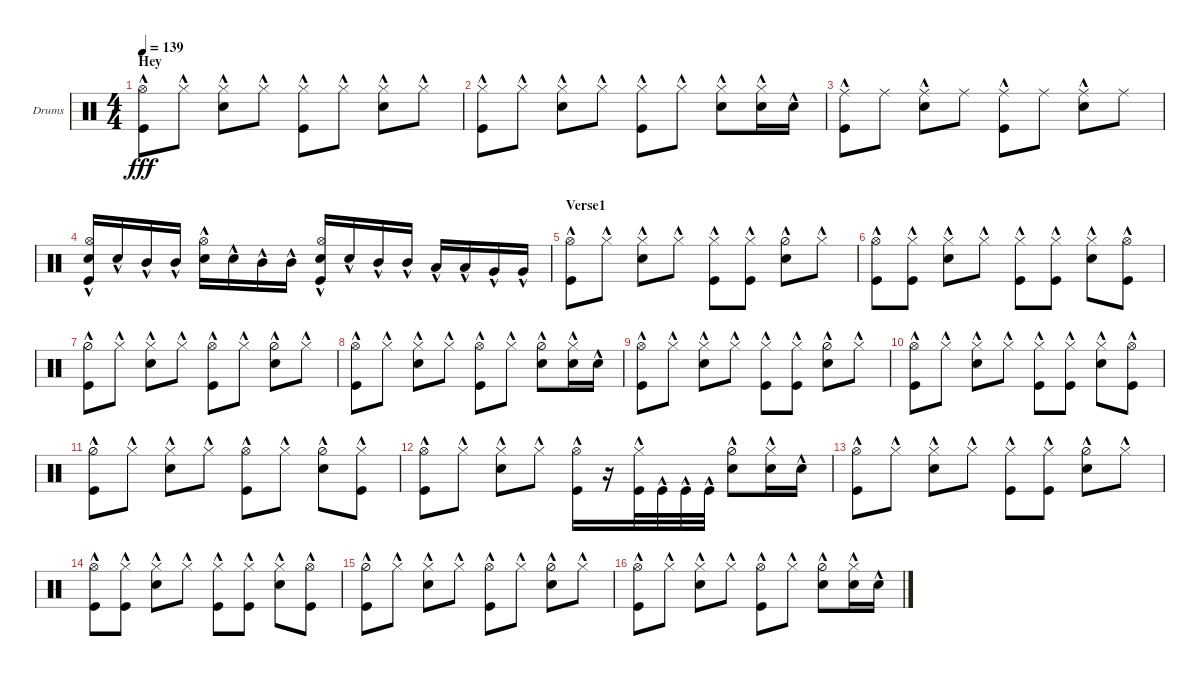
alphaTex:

\bracketExtendMode groupsimilarinstruments
\firstSystemTrackNameOrientation horizontal
\otherSystemsTrackNameOrientation horizontal
\track ("Drumkit" "Drums") {instrument percussion}
\staff {score}
\articulation defaults
\ts (4 4)
\section ("" "Hey")
\tempo 139
\clef neutral
\ks c
("Kick (hit)"{hac} "Hi-Hat (open)"{hac}).8{dy fff} "Hi-Hat (closed)"{hac}.8 ("Hi-Hat (closed)"{hac} "Snare (hit) 2"{hac}).8 "Hi-Hat (closed)"{hac}.8 ("Hi-Hat (closed)"{hac} "Kick (hit)"{hac}).8 "Hi-Hat (closed)"{hac}.8 ("Hi-Hat (closed)"{hac} "Snare (hit) 2"{hac}).8 "Hi-Hat (closed)"{hac}.8 |
("Hi-Hat (closed)"{hac} "Kick (hit)"{hac}).8 "Hi-Hat (closed)"{hac}.8 ("Hi-Hat (closed)"{hac} "Snare (hit) 2"{hac}).8 "Hi-Hat (closed)"{hac}.8 ("Hi-Hat (closed)"{hac} "Kick (hit)"{hac}).8 "Hi-Hat (closed)"{hac}.8 ("Hi-Hat (closed)"{hac} "Snare (hit) 2"{hac}).8 ("Hi-Hat (closed)"{hac} "Snare (hit) 2"{hac}).16 "Snare (hit) 2"{hac}.16 |
("Kick (hit)"{hac} "Ride (middle)"{hac}).8 "Ride (middle)".8 ("Ride (middle)"{hac} "Snare (hit) 2"{hac}).8 "Ride (middle)".8 ("Ride (middle)"{hac} "Kick (hit)"{hac}).8 "Ride (middle)".8 ("Ride (middle)"{hac} "Snare (hit) 2"{hac}).8 "Ride (middle)".8 |
("Snare (hit) 2"{hac} "Kick (hit)"{hac} "Hi-Hat (open)"{hac}).16 "Snare (hit) 2"{hac}.16 "Mid Tom (hit)"{hac}.16 "Mid Tom (hit)"{hac}.16 ("Snare (hit) 2"{hac} "Hi-Hat (open)"{hac}).16 "Snare (hit) 2"{hac}.16 "Mid Tom (hit)"{hac}.16 "Mid Tom (hit)"{hac}.16 ("Snare (hit) 2"{hac} "Kick (hit)"{hac} "Hi-Hat (open)"{hac}).16 "Snare (hit) 2"{hac}.16 "Mid Tom (hit)"{hac}.16 "Mid Tom (hit)"{hac}.16 "Low Tom (hit)"{hac}.16 "Low Tom (hit)"{hac}.16 "Very Low Tom (hit)"{hac}.16 "Very Low Tom (hit)"{hac}.16 |
\section ("" "Verse1")
("Kick (hit)"{hac} "Hi-Hat (open)"{hac}).8 "Hi-Hat (closed)"{hac}.8 ("Hi-Hat (closed)"{hac} "Snare (hit) 2"{hac}).8 "Hi-Hat (closed)"{hac}.8 ("Hi-Hat (closed)"{hac} "Kick (hit)"{hac}).8 ("Hi-Hat (closed)"{hac} "Kick (hit)"{hac}).8 ("Hi-Hat (half)"{hac} "Snare (hit) 2"{hac}).8 "Hi-Hat (closed)"{hac}.8 |
("Kick (hit)"{hac} "Hi-Hat (open)"{hac}).8 ("Hi-Hat (closed)"{hac} "Kick (hit)"{hac}).8 ("Hi-Hat (closed)"{hac} "Snare (hit) 2"{hac}).8 "Hi-Hat (closed)"{hac}.8 ("Hi-Hat (closed)"{hac} "Kick (hit)"{hac}).8 ("Hi-Hat (closed)"{hac} "Kick (hit)"{hac}).8 ("Hi-Hat (closed)"{hac} "Snare (hit) 2"{hac}).8 ("Hi-Hat (open)"{hac} "Kick (hit)"{hac}).8 |
("Kick (hit)"{hac} "Hi-Hat (half)"{hac}).8 "Hi-Hat (closed)"{hac}.8 ("Hi-Hat (closed)"{hac} "Snare (hit) 2"{hac}).8 "Hi-Hat (closed)"{hac}.8 ("Hi-Hat (open)"{hac} "Kick (hit)"{hac}).8 "Hi-Hat (closed)"{hac}.8 ("Hi-Hat (half)"{hac} "Snare (hit) 2"{hac}).8 "Hi-Hat (closed)"{hac}.8 |
("Kick (hit)"{hac} "Hi-Hat (open)"{hac}).8 "Hi-Hat (closed)"{hac}.8 ("Hi-Hat (closed)"{hac} "Snare (hit) 2"{hac}).8 "Hi-Hat (closed)"{hac}.8 ("Hi-Hat (open)"{hac} "Kick (hit)"{hac}).8 "Hi-Hat (closed)"{hac}.8 ("Hi-Hat (half)"{hac} "Snare (hit) 2"{hac}).8 ("Hi-Hat (closed)"{hac} "Snare (hit) 2"{hac}).16 "Snare (hit) 2"{hac}.16 |
("Kick (hit)"{hac} "Hi-Hat (open)"{hac}).8 "Hi-Hat (closed)"{hac}.8 ("Hi-Hat (closed)"{hac} "Snare (hit) 2"{hac}).8 "Hi-Hat (closed)"{hac}.8 ("Hi-Hat (closed)"{hac} "Kick (hit)"{hac}).8 ("Hi-Hat (closed)"{hac} "Kick (hit)"{hac}).8 ("Hi-Hat (half)"{hac} "Snare (hit) 2"{hac}).8 "Hi-Hat (closed)"{hac}.8 |
("Kick (hit)"{hac} "Hi-Hat (open)"{hac}).8 "Hi-Hat (closed)"{hac}.8 ("Hi-Hat (closed)"{hac} "Snare (hit) 2"{hac}).8 "Hi-Hat (closed)"{hac}.8 ("Hi-Hat (closed)"{hac} "Kick (hit)"{hac}).8 ("Hi-Hat (closed)"{hac} "Kick (hit)"{hac}).8 ("Hi-Hat (closed)"{hac} "Snare (hit) 2"{hac}).8 ("Hi-Hat (open)"{hac} "Kick (hit)"{hac}).8 |
("Kick (hit)"{hac} "Hi-Hat (half)"{hac}).8 "Hi-Hat (closed)"{hac}.8 ("Hi-Hat (closed)"{hac} "Snare (hit) 2"{hac}).8 "Hi-Hat (closed)"{hac}.8 ("Hi-Hat (open)"{hac} "Kick (hit)"{hac}).8 "Hi-Hat (closed)"{hac}.8 ("Hi-Hat (half)"{hac} "Snare (hit) 2"{hac}).8 ("Hi-Hat (closed)"{hac} "Kick (hit)"{hac}).8 |
("Kick (hit)"{hac} "Hi-Hat (open)"{hac}).8 "Hi-Hat (closed)"{hac}.8 ("Hi-Hat (closed)"{hac} "Snare (hit) 2"{hac}).8 "Hi-Hat (closed)"{hac}.8 ("Hi-Hat (open)"{hac} "Kick (hit)"{hac}).16 r.16 ("Hi-Hat (closed)"{hac} "Kick (hit)"{hac}).32 "Kick (hit)"{hac}.32 "Kick (hit)"{hac}.32 "Kick (hit)"{hac}.32 ("Hi-Hat (half)"{hac} "Snare (hit) 2"{hac}).8 ("Hi-Hat (closed)"{hac} "Snare (hit) 2"{hac}).16 "Snare (hit) 2"{hac}.16 |
("Kick (hit)"{hac} "Hi-Hat (open)"{hac}).8 "Hi-Hat (closed)"{hac}.8 ("Hi-Hat (closed)"{hac} "Snare (hit) 2"{hac}).8 "Hi-Hat (closed)"{hac}.8 ("Hi-Hat (closed)"{hac} "Kick (hit)"{hac}).8 ("Hi-Hat (closed)"{hac} "Kick (hit)"{hac}).8 ("Hi-Hat (half)"{hac} "Snare (hit) 2"{hac}).8 "Hi-Hat (closed)"{hac}.8 |
("Kick (hit)"{hac} "Hi-Hat (open)"{hac}).8 ("Hi-Hat (closed)"{hac} "Kick (hit)"{hac}).8 ("Hi-Hat (closed)"{hac} "Snare (hit) 2"{hac}).8 "Hi-Hat (closed)"{hac}.8 ("Hi-Hat (closed)"{hac} "Kick (hit)"{hac}).8 ("Hi-Hat (closed)"{hac} "Kick (hit)"{hac}).8 ("Hi-Hat (closed)"{hac} "Snare (hit) 2"{hac}).8 ("Hi-Hat (open)"{hac} "Kick (hit)"{hac}).8 |
("Kick (hit)"{hac} "Hi-Hat (half)"{hac}).8 "Hi-Hat (closed)"{hac}.8 ("Hi-Hat (closed)"{hac} "Snare (hit) 2"{hac}).8 "Hi-Hat (closed)"{hac}.8 ("Hi-Hat (open)"{hac} "Kick (hit)"{hac}).8 "Hi-Hat (closed)"{hac}.8 ("Hi-Hat (half)"{hac} "Snare (hit) 2"{hac}).8 "Hi-Hat (closed)"{hac}.8 |
("Kick (hit)"{hac} "Hi-Hat (open)"{hac}).8 "Hi-Hat (closed)"{hac}.8 ("Hi-Hat (closed)"{hac} "Snare (hit) 2"{hac}).8 "Hi-Hat (closed)"{hac}.8 ("Hi-Hat (open)"{hac} "Kick (hit)"{hac}).8 "Hi-Hat (closed)"{hac}.8 ("Hi-Hat (half)"{hac} "Snare (hit) 2"{hac}).8 ("Hi-Hat (closed)"{hac} "Snare (hit) 2"{hac}).16 "Snare (hit) 2"{hac}.16
